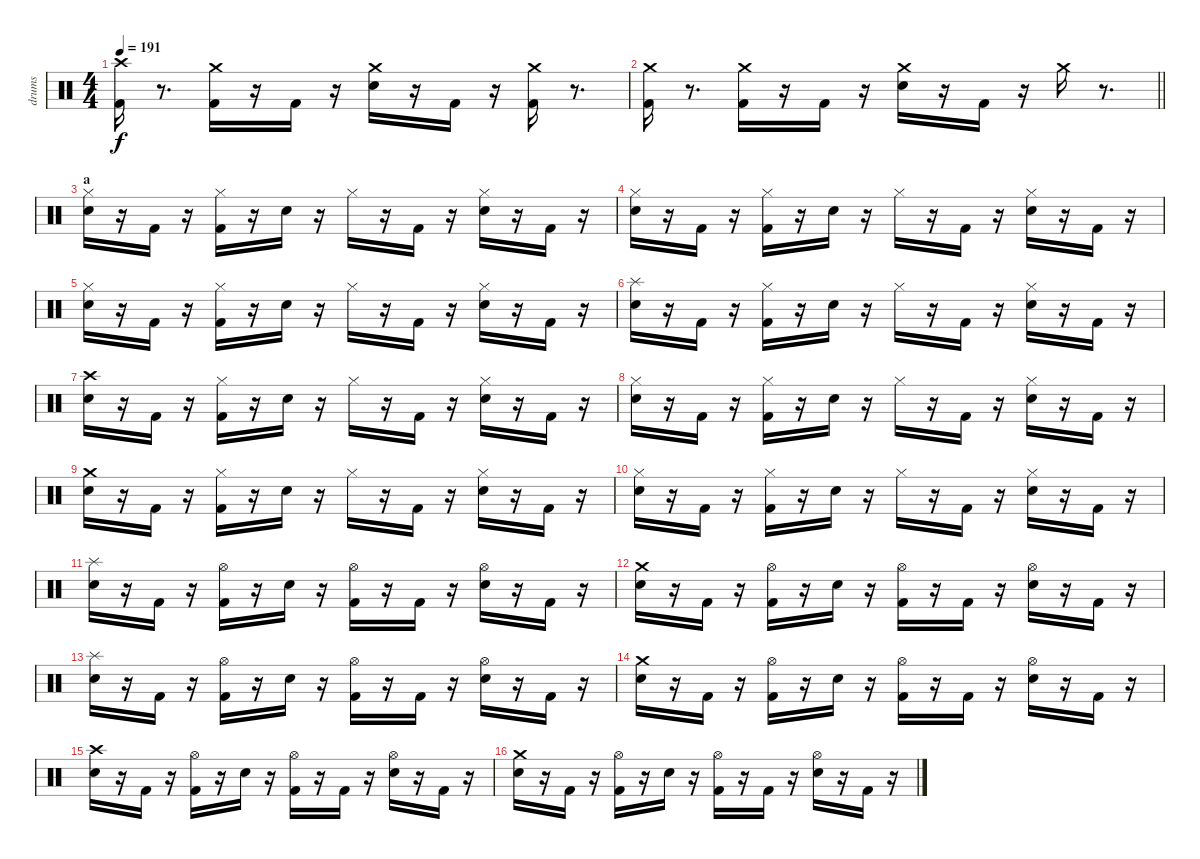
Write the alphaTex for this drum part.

\track ("drums" "drums") {instrument percussion}
\staff {score}
\articulation defaults
\ts (4 4)
\tempo 191
\clef neutral
\ks c
("Kick (hit) 2" "Crash high (hit)").16{dy f} r.8{d} ("Kick (hit) 2" "Crash medium (hit)").16 r.16 "Kick (hit) 2".16 r.16 ("Snare (hit) 2" "Crash medium (hit)").16 r.16 "Kick (hit) 2".16 r.16 ("Kick (hit) 2" "Crash medium (hit)").16 r.8{d} |
\barLineRight lightlight
("Kick (hit) 2" "Crash medium (hit)").16 r.8{d} ("Kick (hit) 2" "Crash medium (hit)").16 r.16 "Kick (hit) 2".16 r.16 ("Snare (hit) 2" "Crash medium (hit)").16 r.16 "Kick (hit) 2".16 r.16 "Crash medium (hit)".16 r.8{d} |
\section ("" "a")
("Snare (hit) 2" "Hi-Hat (closed)").16 r.16 "Kick (hit) 2".16 r.16 ("Kick (hit) 2" "Hi-Hat (closed)").16 r.16 "Snare (hit) 2".16 r.16 "Hi-Hat (closed)".16 r.16 "Kick (hit) 2".16 r.16 ("Snare (hit) 2" "Hi-Hat (closed)").16 r.16 "Kick (hit) 2".16 r.16 |
("Snare (hit) 2" "Hi-Hat (closed)").16 r.16 "Kick (hit) 2".16 r.16 ("Kick (hit) 2" "Hi-Hat (closed)").16 r.16 "Snare (hit) 2".16 r.16 "Hi-Hat (closed)".16 r.16 "Kick (hit) 2".16 r.16 ("Snare (hit) 2" "Hi-Hat (closed)").16 r.16 "Kick (hit) 2".16 r.16 |
("Snare (hit) 2" "Hi-Hat (closed)").16 r.16 "Kick (hit) 2".16 r.16 ("Kick (hit) 2" "Hi-Hat (closed)").16 r.16 "Snare (hit) 2".16 r.16 "Hi-Hat (closed)".16 r.16 "Kick (hit) 2".16 r.16 ("Snare (hit) 2" "Hi-Hat (closed)").16 r.16 "Kick (hit) 2".16 r.16 |
("Snare (hit) 2" "Splash (hit)").16 r.16 "Kick (hit) 2".16 r.16 ("Kick (hit) 2" "Hi-Hat (closed)").16 r.16 "Snare (hit) 2".16 r.16 "Hi-Hat (closed)".16 r.16 "Kick (hit) 2".16 r.16 ("Snare (hit) 2" "Hi-Hat (closed)").16 r.16 "Kick (hit) 2".16 r.16 |
("Snare (hit) 2" "Crash high (hit)").16 r.16 "Kick (hit) 2".16 r.16 ("Kick (hit) 2" "Hi-Hat (closed)").16 r.16 "Snare (hit) 2".16 r.16 "Hi-Hat (closed)".16 r.16 "Kick (hit) 2".16 r.16 ("Snare (hit) 2" "Hi-Hat (closed)").16 r.16 "Kick (hit) 2".16 r.16 |
("Snare (hit) 2" "Hi-Hat (closed)").16 r.16 "Kick (hit) 2".16 r.16 ("Kick (hit) 2" "Hi-Hat (closed)").16 r.16 "Snare (hit) 2".16 r.16 "Hi-Hat (closed)".16 r.16 "Kick (hit) 2".16 r.16 ("Snare (hit) 2" "Hi-Hat (closed)").16 r.16 "Kick (hit) 2".16 r.16 |
("Snare (hit) 2" "Crash medium (hit)").16 r.16 "Kick (hit) 2".16 r.16 ("Kick (hit) 2" "Hi-Hat (closed)").16 r.16 "Snare (hit) 2".16 r.16 "Hi-Hat (closed)".16 r.16 "Kick (hit) 2".16 r.16 ("Snare (hit) 2" "Hi-Hat (closed)").16 r.16 "Kick (hit) 2".16 r.16 |
("Snare (hit) 2" "Hi-Hat (closed)").16 r.16 "Kick (hit) 2".16 r.16 ("Kick (hit) 2" "Hi-Hat (closed)").16 r.16 "Snare (hit) 2".16 r.16 "Hi-Hat (closed)".16 r.16 "Kick (hit) 2".16 r.16 ("Snare (hit) 2" "Hi-Hat (closed)").16 r.16 "Kick (hit) 2".16 r.16 |
("Snare (hit) 2" "Splash (hit)").16 r.16 "Kick (hit) 2".16 r.16 ("Kick (hit) 2" "Hi-Hat (open)").16 r.16 "Snare (hit) 2".16 r.16 ("Kick (hit) 2" "Hi-Hat (open)").16 r.16 "Kick (hit) 2".16 r.16 ("Snare (hit) 2" "Hi-Hat (open)").16 r.16 "Kick (hit) 2".16 r.16 |
("Snare (hit) 2" "Crash medium (hit)").16 r.16 "Kick (hit) 2".16 r.16 ("Kick (hit) 2" "Hi-Hat (open)").16 r.16 "Snare (hit) 2".16 r.16 ("Kick (hit) 2" "Hi-Hat (open)").16 r.16 "Kick (hit) 2".16 r.16 ("Snare (hit) 2" "Hi-Hat (open)").16 r.16 "Kick (hit) 2".16 r.16 |
("Snare (hit) 2" "Splash (hit)").16 r.16 "Kick (hit) 2".16 r.16 ("Kick (hit) 2" "Hi-Hat (open)").16 r.16 "Snare (hit) 2".16 r.16 ("Kick (hit) 2" "Hi-Hat (open)").16 r.16 "Kick (hit) 2".16 r.16 ("Snare (hit) 2" "Hi-Hat (open)").16 r.16 "Kick (hit) 2".16 r.16 |
("Snare (hit) 2" "Crash medium (hit)").16 r.16 "Kick (hit) 2".16 r.16 ("Kick (hit) 2" "Hi-Hat (open)").16 r.16 "Snare (hit) 2".16 r.16 ("Kick (hit) 2" "Hi-Hat (open)").16 r.16 "Kick (hit) 2".16 r.16 ("Snare (hit) 2" "Hi-Hat (open)").16 r.16 "Kick (hit) 2".16 r.16 |
("Snare (hit) 2" "Crash high (hit)").16 r.16 "Kick (hit) 2".16 r.16 ("Kick (hit) 2" "Hi-Hat (open)").16 r.16 "Snare (hit) 2".16 r.16 ("Kick (hit) 2" "Hi-Hat (open)").16 r.16 "Kick (hit) 2".16 r.16 ("Snare (hit) 2" "Hi-Hat (open)").16 r.16 "Kick (hit) 2".16 r.16 |
("Snare (hit) 2" "Crash medium (hit)").16 r.16 "Kick (hit) 2".16 r.16 ("Kick (hit) 2" "Hi-Hat (open)").16 r.16 "Snare (hit) 2".16 r.16 ("Kick (hit) 2" "Hi-Hat (open)").16 r.16 "Kick (hit) 2".16 r.16 ("Snare (hit) 2" "Hi-Hat (open)").16 r.16 "Kick (hit) 2".16 r.16
